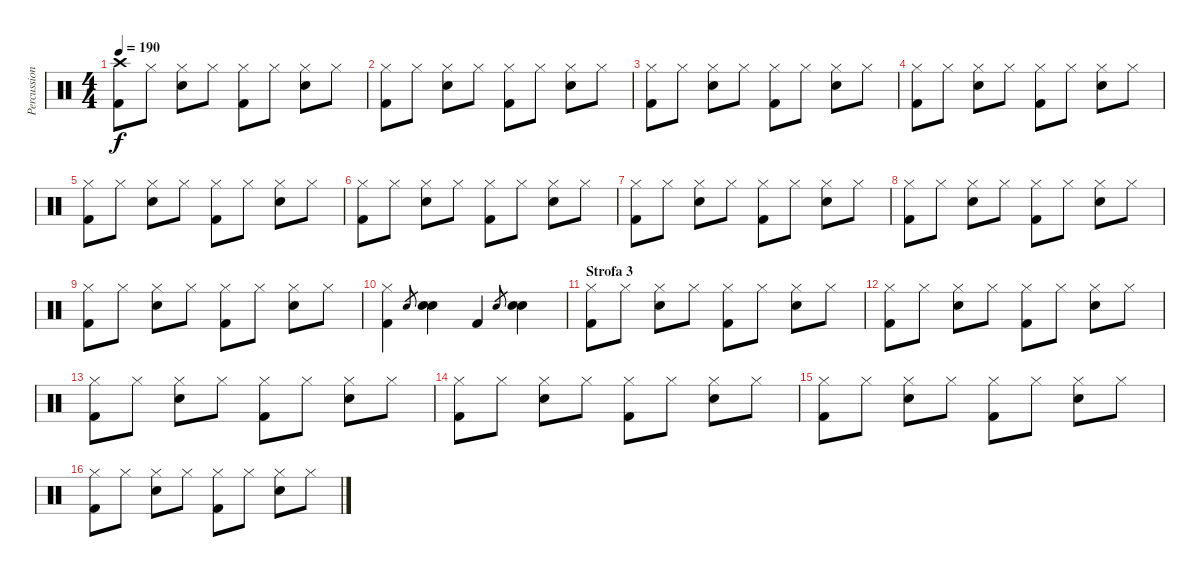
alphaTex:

\track ("Percussion" "Percussion") {instrument percussion}
\staff {score}
\articulation defaults
\ts (4 4)
\tempo 190
\clef neutral
\ks c
("Crash high (hit)" "Kick (hit) 2").8{dy f} "Hi-Hat (closed)".8 ("Hi-Hat (closed)" "Electric Snare (hit)").8 "Hi-Hat (closed)".8 ("Hi-Hat (closed)" "Kick (hit) 2").8 "Hi-Hat (closed)".8 ("Hi-Hat (closed)" "Electric Snare (hit)").8 "Hi-Hat (closed)".8 |
("Hi-Hat (closed)" "Kick (hit) 2").8 "Hi-Hat (closed)".8 ("Hi-Hat (closed)" "Electric Snare (hit)").8 "Hi-Hat (closed)".8 ("Hi-Hat (closed)" "Kick (hit) 2").8 "Hi-Hat (closed)".8 ("Hi-Hat (closed)" "Electric Snare (hit)").8 "Hi-Hat (closed)".8 |
("Hi-Hat (closed)" "Kick (hit) 2").8 "Hi-Hat (closed)".8 ("Hi-Hat (closed)" "Electric Snare (hit)").8 "Hi-Hat (closed)".8 ("Hi-Hat (closed)" "Kick (hit) 2").8 "Hi-Hat (closed)".8 ("Hi-Hat (closed)" "Electric Snare (hit)").8 "Hi-Hat (closed)".8 |
("Hi-Hat (closed)" "Kick (hit) 2").8 "Hi-Hat (closed)".8 ("Hi-Hat (closed)" "Electric Snare (hit)").8 "Hi-Hat (closed)".8 ("Hi-Hat (closed)" "Kick (hit) 2").8 "Hi-Hat (closed)".8 ("Hi-Hat (closed)" "Electric Snare (hit)").8 "Hi-Hat (closed)".8 |
("Hi-Hat (closed)" "Kick (hit) 2").8 "Hi-Hat (closed)".8 ("Hi-Hat (closed)" "Electric Snare (hit)").8 "Hi-Hat (closed)".8 ("Hi-Hat (closed)" "Kick (hit) 2").8 "Hi-Hat (closed)".8 ("Hi-Hat (closed)" "Electric Snare (hit)").8 "Hi-Hat (closed)".8 |
("Hi-Hat (closed)" "Kick (hit) 2").8 "Hi-Hat (closed)".8 ("Hi-Hat (closed)" "Electric Snare (hit)").8 "Hi-Hat (closed)".8 ("Hi-Hat (closed)" "Kick (hit) 2").8 "Hi-Hat (closed)".8 ("Hi-Hat (closed)" "Electric Snare (hit)").8 "Hi-Hat (closed)".8 |
("Hi-Hat (closed)" "Kick (hit) 2").8 "Hi-Hat (closed)".8 ("Hi-Hat (closed)" "Electric Snare (hit)").8 "Hi-Hat (closed)".8 ("Hi-Hat (closed)" "Kick (hit) 2").8 "Hi-Hat (closed)".8 ("Hi-Hat (closed)" "Electric Snare (hit)").8 "Hi-Hat (closed)".8 |
("Hi-Hat (closed)" "Kick (hit) 2").8 "Hi-Hat (closed)".8 ("Hi-Hat (closed)" "Electric Snare (hit)").8 "Hi-Hat (closed)".8 ("Hi-Hat (closed)" "Kick (hit) 2").8 "Hi-Hat (closed)".8 ("Hi-Hat (closed)" "Electric Snare (hit)").8 "Hi-Hat (closed)".8 |
("Hi-Hat (closed)" "Kick (hit) 2").8 "Hi-Hat (closed)".8 ("Hi-Hat (closed)" "Electric Snare (hit)").8 "Hi-Hat (closed)".8 ("Hi-Hat (closed)" "Kick (hit) 2").8 "Hi-Hat (closed)".8 ("Hi-Hat (closed)" "Electric Snare (hit)").8 "Hi-Hat (closed)".8 |
("Hi-Hat (closed)" "Kick (hit) 2").4 "Electric Snare (hit)".8{gr} ("Electric Snare (hit)" "Electric Snare (hit)").4 "Kick (hit) 2".4 "Electric Snare (hit)".8{gr} ("Electric Snare (hit)" "Electric Snare (hit)").4 |
\section ("" "Strofa 3")
("Hi-Hat (closed)" "Kick (hit) 2").8 "Hi-Hat (closed)".8 ("Hi-Hat (closed)" "Electric Snare (hit)").8 "Hi-Hat (closed)".8 ("Hi-Hat (closed)" "Kick (hit) 2").8 "Hi-Hat (closed)".8 ("Hi-Hat (closed)" "Electric Snare (hit)").8 "Hi-Hat (closed)".8 |
("Hi-Hat (closed)" "Kick (hit) 2").8 "Hi-Hat (closed)".8 ("Hi-Hat (closed)" "Electric Snare (hit)").8 "Hi-Hat (closed)".8 ("Hi-Hat (closed)" "Kick (hit) 2").8 "Hi-Hat (closed)".8 ("Hi-Hat (closed)" "Electric Snare (hit)").8 "Hi-Hat (closed)".8 |
("Hi-Hat (closed)" "Kick (hit) 2").8 "Hi-Hat (closed)".8 ("Hi-Hat (closed)" "Electric Snare (hit)").8 "Hi-Hat (closed)".8 ("Hi-Hat (closed)" "Kick (hit) 2").8 "Hi-Hat (closed)".8 ("Hi-Hat (closed)" "Electric Snare (hit)").8 "Hi-Hat (closed)".8 |
("Hi-Hat (closed)" "Kick (hit) 2").8 "Hi-Hat (closed)".8 ("Hi-Hat (closed)" "Electric Snare (hit)").8 "Hi-Hat (closed)".8 ("Hi-Hat (closed)" "Kick (hit) 2").8 "Hi-Hat (closed)".8 ("Hi-Hat (closed)" "Electric Snare (hit)").8 "Hi-Hat (closed)".8 |
("Hi-Hat (closed)" "Kick (hit) 2").8 "Hi-Hat (closed)".8 ("Hi-Hat (closed)" "Electric Snare (hit)").8 "Hi-Hat (closed)".8 ("Hi-Hat (closed)" "Kick (hit) 2").8 "Hi-Hat (closed)".8 ("Hi-Hat (closed)" "Electric Snare (hit)").8 "Hi-Hat (closed)".8 |
("Hi-Hat (closed)" "Kick (hit) 2").8 "Hi-Hat (closed)".8 ("Hi-Hat (closed)" "Electric Snare (hit)").8 "Hi-Hat (closed)".8 ("Hi-Hat (closed)" "Kick (hit) 2").8 "Hi-Hat (closed)".8 ("Hi-Hat (closed)" "Electric Snare (hit)").8 "Hi-Hat (closed)".8
